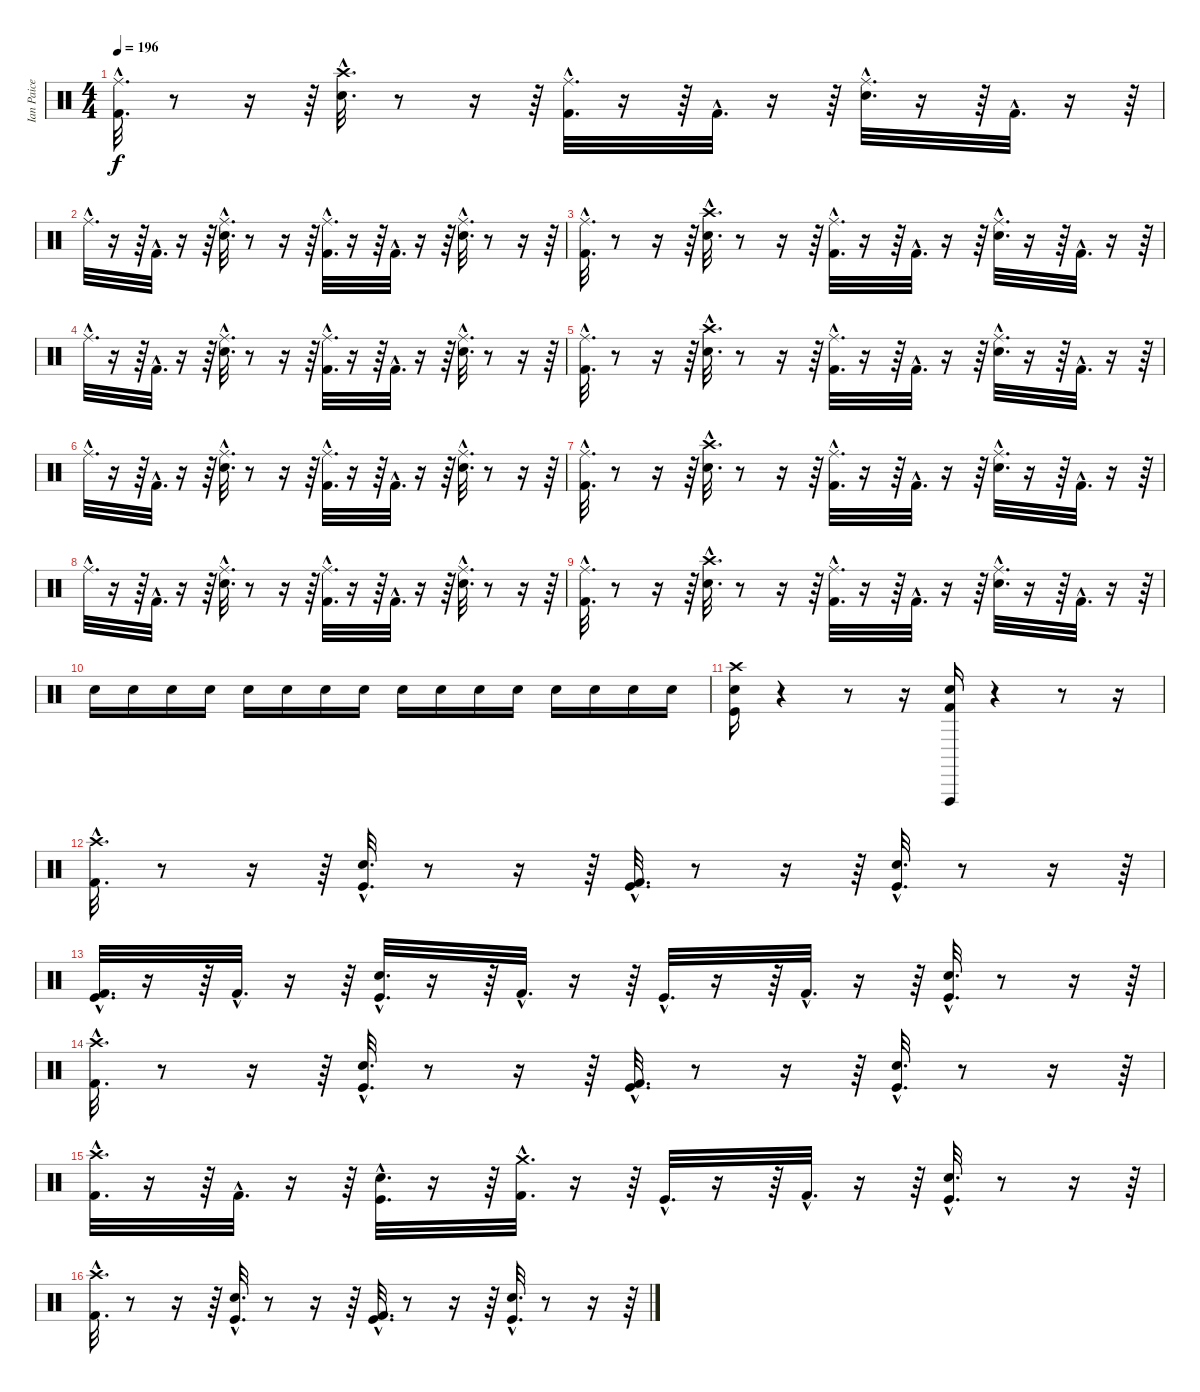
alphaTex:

\track ("Ian Paice" "Ian Paice") {instrument percussion}
\staff {score}
\articulation defaults
\ts (4 4)
\tempo 196
\clef neutral
\ks c
("Kick (hit) 2"{hac} "Ride (middle)"{hac}).32{d dy f} r.8 r.16 r.64 ("Crash high (hit)"{hac} "Snare (hit) 2"{hac}).32{d} r.8 r.16 r.64 ("Ride (middle)"{hac} "Kick (hit) 2"{hac}).32{d} r.16 r.64 "Kick (hit) 2"{hac}.32{d} r.16 r.64 ("Ride (middle)"{hac} "Snare (hit) 2"{hac}).32{d} r.16 r.64 "Kick (hit) 2"{hac}.32{d} r.16 r.64 |
"Ride (middle)"{hac}.32{d} r.16 r.64 "Kick (hit) 2"{hac}.32{d} r.16 r.64 ("Ride (middle)"{hac} "Snare (hit) 2"{hac}).32{d} r.8 r.16 r.64 ("Ride (middle)"{hac} "Kick (hit) 2"{hac}).32{d} r.16 r.64 "Kick (hit) 2"{hac}.32{d} r.16 r.64 ("Ride (middle)"{hac} "Snare (hit) 2"{hac}).32{d} r.8 r.16 r.64 |
("Kick (hit) 2"{hac} "Ride (middle)"{hac}).32{d} r.8 r.16 r.64 ("Crash high (hit)"{hac} "Snare (hit) 2"{hac}).32{d} r.8 r.16 r.64 ("Ride (middle)"{hac} "Kick (hit) 2"{hac}).32{d} r.16 r.64 "Kick (hit) 2"{hac}.32{d} r.16 r.64 ("Ride (middle)"{hac} "Snare (hit) 2"{hac}).32{d} r.16 r.64 "Kick (hit) 2"{hac}.32{d} r.16 r.64 |
"Ride (middle)"{hac}.32{d} r.16 r.64 "Kick (hit) 2"{hac}.32{d} r.16 r.64 ("Ride (middle)"{hac} "Snare (hit) 2"{hac}).32{d} r.8 r.16 r.64 ("Ride (middle)"{hac} "Kick (hit) 2"{hac}).32{d} r.16 r.64 "Kick (hit) 2"{hac}.32{d} r.16 r.64 ("Ride (middle)"{hac} "Snare (hit) 2"{hac}).32{d} r.8 r.16 r.64 |
("Kick (hit) 2"{hac} "Ride (middle)"{hac}).32{d} r.8 r.16 r.64 ("Crash high (hit)"{hac} "Snare (hit) 2"{hac}).32{d} r.8 r.16 r.64 ("Ride (middle)"{hac} "Kick (hit) 2"{hac}).32{d} r.16 r.64 "Kick (hit) 2"{hac}.32{d} r.16 r.64 ("Ride (middle)"{hac} "Snare (hit) 2"{hac}).32{d} r.16 r.64 "Kick (hit) 2"{hac}.32{d} r.16 r.64 |
"Ride (middle)"{hac}.32{d} r.16 r.64 "Kick (hit) 2"{hac}.32{d} r.16 r.64 ("Ride (middle)"{hac} "Snare (hit) 2"{hac}).32{d} r.8 r.16 r.64 ("Ride (middle)"{hac} "Kick (hit) 2"{hac}).32{d} r.16 r.64 "Kick (hit) 2"{hac}.32{d} r.16 r.64 ("Ride (middle)"{hac} "Snare (hit) 2"{hac}).32{d} r.8 r.16 r.64 |
("Kick (hit) 2"{hac} "Ride (middle)"{hac}).32{d} r.8 r.16 r.64 ("Crash high (hit)"{hac} "Snare (hit) 2"{hac}).32{d} r.8 r.16 r.64 ("Ride (middle)"{hac} "Kick (hit) 2"{hac}).32{d} r.16 r.64 "Kick (hit) 2"{hac}.32{d} r.16 r.64 ("Ride (middle)"{hac} "Snare (hit) 2"{hac}).32{d} r.16 r.64 "Kick (hit) 2"{hac}.32{d} r.16 r.64 |
"Ride (middle)"{hac}.32{d} r.16 r.64 "Kick (hit) 2"{hac}.32{d} r.16 r.64 ("Ride (middle)"{hac} "Snare (hit) 2"{hac}).32{d} r.8 r.16 r.64 ("Ride (middle)"{hac} "Kick (hit) 2"{hac}).32{d} r.16 r.64 "Kick (hit) 2"{hac}.32{d} r.16 r.64 ("Ride (middle)"{hac} "Snare (hit) 2"{hac}).32{d} r.8 r.16 r.64 |
("Kick (hit) 2"{hac} "Ride (middle)"{hac}).32{d} r.8 r.16 r.64 ("Crash high (hit)"{hac} "Snare (hit) 2"{hac}).32{d} r.8 r.16 r.64 ("Ride (middle)"{hac} "Kick (hit) 2"{hac}).32{d} r.16 r.64 "Kick (hit) 2"{hac}.32{d} r.16 r.64 ("Ride (middle)"{hac} "Snare (hit) 2"{hac}).32{d} r.16 r.64 "Kick (hit) 2"{hac}.32{d} r.16 r.64 |
"Snare (hit) 2".16 "Snare (hit) 2".16 "Snare (hit) 2".16 "Snare (hit) 2".16 "Snare (hit) 2".16 "Snare (hit) 2".16 "Snare (hit) 2".16 "Snare (hit) 2".16 "Snare (hit) 2".16 "Snare (hit) 2".16 "Snare (hit) 2".16 "Snare (hit) 2".16 "Snare (hit) 2".16 "Snare (hit) 2".16 "Snare (hit) 2".16 "Snare (hit) 2".16 |
("Crash high (hit)" "Kick (hit)" "Snare (hit) 2").16 r.4 r.8 r.16 ("Vibraslap (hit)" "Kick (hit) 2" "Snare (hit) 2").16 r.4 r.8 r.16 |
("Kick (hit) 2"{hac} "Crash high (hit)"{hac}).32{d} r.8 r.16 r.64 ("Kick (hit)"{hac} "Snare (hit) 2"{hac}).32{d} r.8 r.16 r.64 ("Kick (hit)"{hac} "Kick (hit) 2"{hac}).32{d} r.8 r.16 r.64 ("Kick (hit)"{hac} "Snare (hit) 2"{hac}).32{d} r.8 r.16 r.64 |
("Kick (hit)"{hac} "Kick (hit) 2"{hac}).32{d} r.16 r.64 "Kick (hit) 2"{hac}.32{d} r.16 r.64 ("Snare (hit) 2"{hac} "Kick (hit)"{hac}).32{d} r.16 r.64 "Kick (hit) 2"{hac}.32{d} r.16 r.64 "Kick (hit)"{hac}.32{d} r.16 r.64 "Kick (hit) 2"{hac}.32{d} r.16 r.64 ("Snare (hit) 2"{hac} "Kick (hit)"{hac}).32{d} r.8 r.16 r.64 |
("Kick (hit) 2"{hac} "Crash high (hit)"{hac}).32{d} r.8 r.16 r.64 ("Kick (hit)"{hac} "Snare (hit) 2"{hac}).32{d} r.8 r.16 r.64 ("Kick (hit)"{hac} "Kick (hit) 2"{hac}).32{d} r.8 r.16 r.64 ("Kick (hit)"{hac} "Snare (hit) 2"{hac}).32{d} r.8 r.16 r.64 |
("Crash high (hit)"{hac} "Kick (hit) 2"{hac}).32{d} r.16 r.64 "Kick (hit) 2"{hac}.32{d} r.16 r.64 ("Kick (hit)"{hac} "Snare (hit) 2"{hac}).32{d} r.16 r.64 ("Crash medium (hit)"{hac} "Kick (hit) 2"{hac}).32{d} r.16 r.64 "Kick (hit)"{hac}.32{d} r.16 r.64 "Kick (hit) 2"{hac}.32{d} r.16 r.64 ("Kick (hit)"{hac} "Snare (hit) 2"{hac}).32{d} r.8 r.16 r.64 |
("Kick (hit) 2"{hac} "Crash high (hit)"{hac}).32{d} r.8 r.16 r.64 ("Kick (hit)"{hac} "Snare (hit) 2"{hac}).32{d} r.8 r.16 r.64 ("Kick (hit)"{hac} "Kick (hit) 2"{hac}).32{d} r.8 r.16 r.64 ("Kick (hit)"{hac} "Snare (hit) 2"{hac}).32{d} r.8 r.16 r.64
